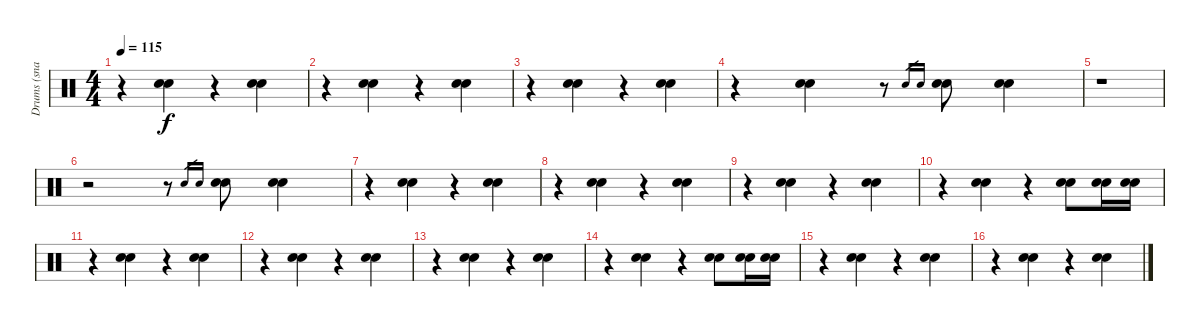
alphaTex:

\track ("Drums (snare drum)" "Drums (sna") {instrument percussion}
\staff {score}
\articulation defaults
\ts (4 4)
\tempo 115
\clef neutral
\ks c
r.4{dy f} ("Electric Snare (hit)" "Snare (hit) 2").4 r.4 ("Electric Snare (hit)" "Snare (hit) 2").4 |
r.4 ("Electric Snare (hit)" "Snare (hit) 2").4 r.4 ("Electric Snare (hit)" "Snare (hit) 2").4 |
r.4 ("Electric Snare (hit)" "Snare (hit) 2").4 r.4 ("Electric Snare (hit)" "Snare (hit) 2").4 |
r.4 ("Electric Snare (hit)" "Snare (hit) 2").4 r.8 "Electric Snare (hit)".16{gr} "Snare (hit) 2".16{gr} ("Electric Snare (hit)" "Snare (hit) 2").8 ("Electric Snare (hit)" "Snare (hit) 2").4 |
r.1 |
r.2 r.8 "Electric Snare (hit)".16{gr} "Snare (hit) 2".16{gr} ("Electric Snare (hit)" "Snare (hit) 2").8 ("Electric Snare (hit)" "Snare (hit) 2").4 |
r.4 ("Electric Snare (hit)" "Snare (hit) 2").4 r.4 ("Electric Snare (hit)" "Snare (hit) 2").4 |
r.4 ("Electric Snare (hit)" "Snare (hit) 2").4 r.4 ("Electric Snare (hit)" "Snare (hit) 2").4 |
r.4 ("Electric Snare (hit)" "Snare (hit) 2").4 r.4 ("Electric Snare (hit)" "Snare (hit) 2").4 |
r.4 ("Electric Snare (hit)" "Snare (hit) 2").4 r.4 ("Electric Snare (hit)" "Snare (hit) 2").8 ("Electric Snare (hit)" "Snare (hit) 2").16 ("Electric Snare (hit)" "Snare (hit) 2").16 |
r.4 ("Electric Snare (hit)" "Snare (hit) 2").4 r.4 ("Electric Snare (hit)" "Snare (hit) 2").4 |
r.4 ("Electric Snare (hit)" "Snare (hit) 2").4 r.4 ("Electric Snare (hit)" "Snare (hit) 2").4 |
r.4 ("Electric Snare (hit)" "Snare (hit) 2").4 r.4 ("Electric Snare (hit)" "Snare (hit) 2").4 |
r.4 ("Electric Snare (hit)" "Snare (hit) 2").4 r.4 ("Electric Snare (hit)" "Snare (hit) 2").8 ("Electric Snare (hit)" "Snare (hit) 2").16 ("Electric Snare (hit)" "Snare (hit) 2").16 |
r.4 ("Electric Snare (hit)" "Snare (hit) 2").4 r.4 ("Electric Snare (hit)" "Snare (hit) 2").4 |
r.4 ("Electric Snare (hit)" "Snare (hit) 2").4 r.4 ("Electric Snare (hit)" "Snare (hit) 2").4
